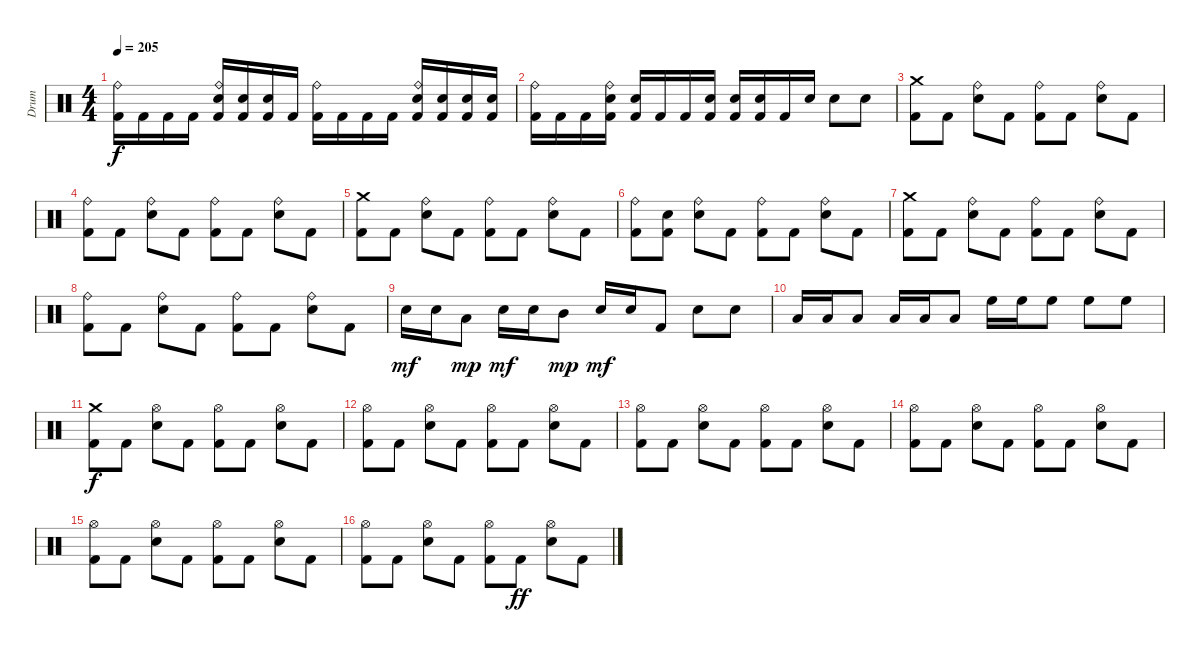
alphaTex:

\track ("Drum" "Drum") {instrument percussion}
\staff {score}
\articulation defaults
\ts (4 4)
\tempo 205
\clef neutral
\ks c
("Kick (hit) 2" "Ride (bell)").16{dy f} "Kick (hit) 2".16 "Kick (hit) 2".16 "Kick (hit) 2".16 ("Kick (hit) 2" "Electric Snare (hit)" "Ride (bell)").16 ("Kick (hit) 2" "Electric Snare (hit)").16 ("Kick (hit) 2" "Electric Snare (hit)").16 "Kick (hit) 2".16 ("Kick (hit) 2" "Ride (bell)").16 "Kick (hit) 2".16 "Kick (hit) 2".16 "Kick (hit) 2".16 ("Kick (hit) 2" "Electric Snare (hit)" "Ride (bell)").16 ("Kick (hit) 2" "Electric Snare (hit)").16 ("Kick (hit) 2" "Electric Snare (hit)").16 ("Kick (hit) 2" "Electric Snare (hit)").16 |
("Kick (hit) 2" "Ride (bell)").16 "Kick (hit) 2".16 "Kick (hit) 2".16 ("Kick (hit) 2" "Electric Snare (hit)" "Ride (bell)").16 ("Kick (hit) 2" "Electric Snare (hit)").16 "Kick (hit) 2".16 "Kick (hit) 2".16 ("Kick (hit) 2" "Electric Snare (hit)").16 ("Kick (hit) 2" "Electric Snare (hit)").16 ("Kick (hit) 2" "Electric Snare (hit)").16 "Kick (hit) 2".16 "Electric Snare (hit)".16 "Electric Snare (hit)".8 "Electric Snare (hit)".8 |
("Kick (hit) 2" "Crash medium (hit)").8 "Kick (hit) 2".8 ("Electric Snare (hit)" "Ride (bell)").8 "Kick (hit) 2".8 ("Kick (hit) 2" "Ride (bell)").8 "Kick (hit) 2".8 ("Electric Snare (hit)" "Ride (bell)").8 "Kick (hit) 2".8 |
("Kick (hit) 2" "Ride (bell)").8 "Kick (hit) 2".8 ("Electric Snare (hit)" "Ride (bell)").8 "Kick (hit) 2".8 ("Kick (hit) 2" "Ride (bell)").8 "Kick (hit) 2".8 ("Electric Snare (hit)" "Ride (bell)").8 "Kick (hit) 2".8 |
("Kick (hit) 2" "Crash medium (hit)").8 "Kick (hit) 2".8 ("Electric Snare (hit)" "Ride (bell)").8 "Kick (hit) 2".8 ("Kick (hit) 2" "Ride (bell)").8 "Kick (hit) 2".8 ("Electric Snare (hit)" "Ride (bell)").8 "Kick (hit) 2".8 |
("Kick (hit) 2" "Ride (bell)").8 ("Kick (hit) 2" "Snare (hit)").8 ("Electric Snare (hit)" "Ride (bell)").8 "Kick (hit) 2".8 ("Kick (hit) 2" "Ride (bell)").8 "Kick (hit) 2".8 ("Electric Snare (hit)" "Ride (bell)").8 "Kick (hit) 2".8 |
("Kick (hit) 2" "Crash medium (hit)").8 "Kick (hit) 2".8 ("Electric Snare (hit)" "Ride (bell)").8 "Kick (hit) 2".8 ("Kick (hit) 2" "Ride (bell)").8 "Kick (hit) 2".8 ("Electric Snare (hit)" "Ride (bell)").8 "Kick (hit) 2".8 |
("Kick (hit) 2" "Ride (bell)").8 "Kick (hit) 2".8 ("Electric Snare (hit)" "Ride (bell)").8 "Kick (hit) 2".8 ("Kick (hit) 2" "Ride (bell)").8 "Kick (hit) 2".8 ("Electric Snare (hit)" "Ride (bell)").8 "Kick (hit) 2".8 |
"Electric Snare (hit)".16{dy mf} "Electric Snare (hit)".16 "Low Tom (hit)".8{dy mp} "Electric Snare (hit)".16{dy mf} "Electric Snare (hit)".16 "Mid Tom (hit)".8{dy mp} "Electric Snare (hit)".16{dy mf} "Electric Snare (hit)".16 "Kick (hit) 2".8 "Electric Snare (hit)".8 "Electric Snare (hit)".8 |
"Low Tom (hit)".16 "Low Tom (hit)".16 "Low Tom (hit)".8 "Low Tom (hit)".16 "Low Tom (hit)".16 "Low Tom (hit)".8 "High Floor Tom (hit)".16 "High Floor Tom (hit)".16 "High Floor Tom (hit)".8 "High Floor Tom (hit)".8 "High Floor Tom (hit)".8 |
("Kick (hit) 2" "Crash medium (hit)").8{dy f} "Kick (hit) 2".8 ("Electric Snare (hit)" "Hi-Hat (open)").8 "Kick (hit) 2".8 ("Kick (hit) 2" "Hi-Hat (open)").8 "Kick (hit) 2".8 ("Electric Snare (hit)" "Hi-Hat (open)").8 "Kick (hit) 2".8 |
("Kick (hit) 2" "Hi-Hat (open)").8 "Kick (hit) 2".8 ("Electric Snare (hit)" "Hi-Hat (open)").8 "Kick (hit) 2".8 ("Kick (hit) 2" "Hi-Hat (open)").8 "Kick (hit) 2".8 ("Electric Snare (hit)" "Hi-Hat (open)").8 "Kick (hit) 2".8 |
("Kick (hit) 2" "Hi-Hat (open)").8 "Kick (hit) 2".8 ("Electric Snare (hit)" "Hi-Hat (open)").8 "Kick (hit) 2".8 ("Kick (hit) 2" "Hi-Hat (open)").8 "Kick (hit) 2".8 ("Electric Snare (hit)" "Hi-Hat (open)").8 "Kick (hit) 2".8 |
("Kick (hit) 2" "Hi-Hat (open)").8 "Kick (hit) 2".8 ("Electric Snare (hit)" "Hi-Hat (open)").8 "Kick (hit) 2".8 ("Kick (hit) 2" "Hi-Hat (open)").8 "Kick (hit) 2".8 ("Electric Snare (hit)" "Hi-Hat (open)").8 "Kick (hit) 2".8 |
("Kick (hit) 2" "Hi-Hat (open)").8 "Kick (hit) 2".8 ("Electric Snare (hit)" "Hi-Hat (open)").8 "Kick (hit) 2".8 ("Kick (hit) 2" "Hi-Hat (open)").8 "Kick (hit) 2".8 ("Electric Snare (hit)" "Hi-Hat (open)").8 "Kick (hit) 2".8 |
("Kick (hit) 2" "Hi-Hat (open)").8 "Kick (hit) 2".8 ("Electric Snare (hit)" "Hi-Hat (open)").8 "Kick (hit) 2".8 ("Kick (hit) 2" "Hi-Hat (open)").8 "Kick (hit) 2".8{dy ff} ("Electric Snare (hit)" "Hi-Hat (open)").8 "Kick (hit) 2".8
